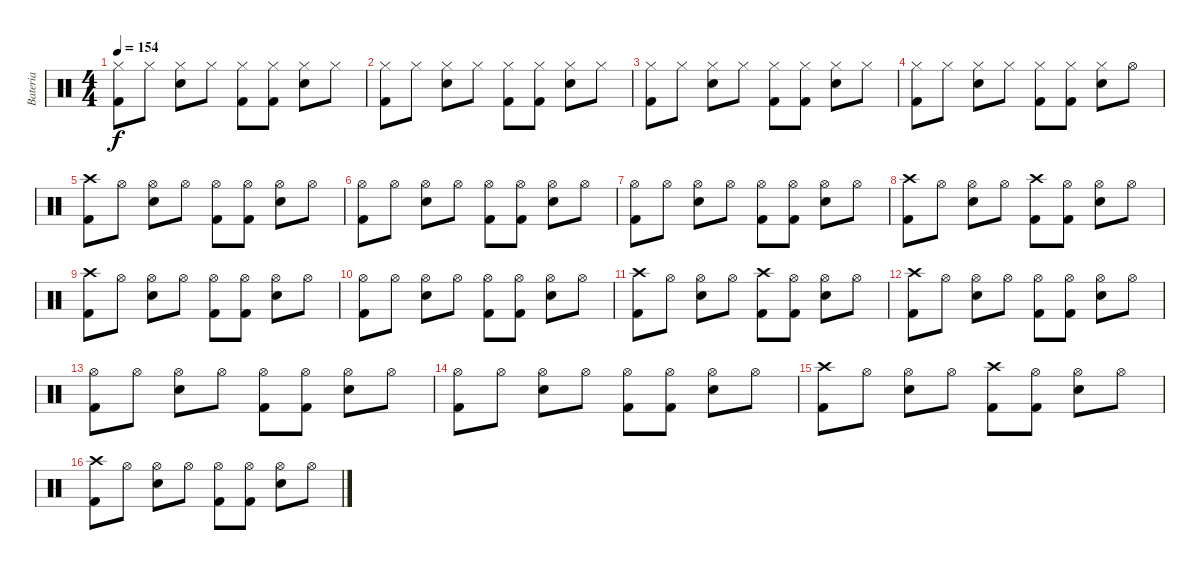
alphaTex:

\track ("Bateria" "Bateria") {instrument percussion}
\staff {score}
\articulation defaults
\ts (4 4)
\tempo 154
\clef neutral
\ks c
("Kick (hit) 2" "Hi-Hat (closed)").8{dy f} "Hi-Hat (closed)".8 ("Electric Snare (hit)" "Hi-Hat (closed)").8 "Hi-Hat (closed)".8 ("Kick (hit) 2" "Hi-Hat (closed)").8 ("Kick (hit) 2" "Hi-Hat (closed)").8 ("Electric Snare (hit)" "Hi-Hat (closed)").8 "Hi-Hat (closed)".8 |
("Kick (hit) 2" "Hi-Hat (closed)").8 "Hi-Hat (closed)".8 ("Electric Snare (hit)" "Hi-Hat (closed)").8 "Hi-Hat (closed)".8 ("Kick (hit) 2" "Hi-Hat (closed)").8 ("Kick (hit) 2" "Hi-Hat (closed)").8 ("Electric Snare (hit)" "Hi-Hat (closed)").8 "Hi-Hat (closed)".8 |
("Kick (hit) 2" "Hi-Hat (closed)").8 "Hi-Hat (closed)".8 ("Electric Snare (hit)" "Hi-Hat (closed)").8 "Hi-Hat (closed)".8 ("Kick (hit) 2" "Hi-Hat (closed)").8 ("Kick (hit) 2" "Hi-Hat (closed)").8 ("Electric Snare (hit)" "Hi-Hat (closed)").8 "Hi-Hat (closed)".8 |
("Kick (hit) 2" "Hi-Hat (closed)").8 "Hi-Hat (closed)".8 ("Electric Snare (hit)" "Hi-Hat (closed)").8 "Hi-Hat (closed)".8 ("Kick (hit) 2" "Hi-Hat (closed)").8 ("Kick (hit) 2" "Hi-Hat (closed)").8 ("Electric Snare (hit)" "Hi-Hat (closed)").8 "Hi-Hat (open)".8 |
("Kick (hit) 2" "Crash high (hit)").8 "Hi-Hat (open)".8 ("Electric Snare (hit)" "Hi-Hat (open)").8 "Hi-Hat (open)".8 ("Kick (hit) 2" "Hi-Hat (open)").8 ("Kick (hit) 2" "Hi-Hat (open)").8 ("Electric Snare (hit)" "Hi-Hat (open)").8 "Hi-Hat (open)".8 |
("Kick (hit) 2" "Hi-Hat (open)").8 "Hi-Hat (open)".8 ("Electric Snare (hit)" "Hi-Hat (open)").8 "Hi-Hat (open)".8 ("Kick (hit) 2" "Hi-Hat (open)").8 ("Kick (hit) 2" "Hi-Hat (open)").8 ("Electric Snare (hit)" "Hi-Hat (open)").8 "Hi-Hat (open)".8 |
("Kick (hit) 2" "Hi-Hat (open)").8 "Hi-Hat (open)".8 ("Electric Snare (hit)" "Hi-Hat (open)").8 "Hi-Hat (open)".8 ("Kick (hit) 2" "Hi-Hat (open)").8 ("Kick (hit) 2" "Hi-Hat (open)").8 ("Electric Snare (hit)" "Hi-Hat (open)").8 "Hi-Hat (open)".8 |
("Kick (hit) 2" "Crash high (hit)").8 "Hi-Hat (open)".8 ("Electric Snare (hit)" "Hi-Hat (open)").8 "Hi-Hat (open)".8 ("Kick (hit) 2" "Crash high (hit)").8 ("Kick (hit) 2" "Hi-Hat (open)").8 ("Electric Snare (hit)" "Hi-Hat (open)").8 "Hi-Hat (open)".8 |
("Kick (hit) 2" "Crash high (hit)").8 "Hi-Hat (open)".8 ("Electric Snare (hit)" "Hi-Hat (open)").8 "Hi-Hat (open)".8 ("Kick (hit) 2" "Hi-Hat (open)").8 ("Kick (hit) 2" "Hi-Hat (open)").8 ("Electric Snare (hit)" "Hi-Hat (open)").8 "Hi-Hat (open)".8 |
("Kick (hit) 2" "Hi-Hat (open)").8 "Hi-Hat (open)".8 ("Electric Snare (hit)" "Hi-Hat (open)").8 "Hi-Hat (open)".8 ("Kick (hit) 2" "Hi-Hat (open)").8 ("Kick (hit) 2" "Hi-Hat (open)").8 ("Electric Snare (hit)" "Hi-Hat (open)").8 "Hi-Hat (open)".8 |
("Kick (hit) 2" "Crash high (hit)").8 "Hi-Hat (open)".8 ("Electric Snare (hit)" "Hi-Hat (open)").8 "Hi-Hat (open)".8 ("Kick (hit) 2" "Crash high (hit)").8 ("Kick (hit) 2" "Hi-Hat (open)").8 ("Electric Snare (hit)" "Hi-Hat (open)").8 "Hi-Hat (open)".8 |
("Kick (hit) 2" "Crash high (hit)").8 "Hi-Hat (open)".8 ("Electric Snare (hit)" "Hi-Hat (open)").8 "Hi-Hat (open)".8 ("Kick (hit) 2" "Hi-Hat (open)").8 ("Kick (hit) 2" "Hi-Hat (open)").8 ("Electric Snare (hit)" "Hi-Hat (open)").8 "Hi-Hat (open)".8 |
("Kick (hit) 2" "Hi-Hat (open)").8 "Hi-Hat (open)".8 ("Electric Snare (hit)" "Hi-Hat (open)").8 "Hi-Hat (open)".8 ("Kick (hit) 2" "Hi-Hat (open)").8 ("Kick (hit) 2" "Hi-Hat (open)").8 ("Electric Snare (hit)" "Hi-Hat (open)").8 "Hi-Hat (open)".8 |
("Kick (hit) 2" "Hi-Hat (open)").8 "Hi-Hat (open)".8 ("Electric Snare (hit)" "Hi-Hat (open)").8 "Hi-Hat (open)".8 ("Kick (hit) 2" "Hi-Hat (open)").8 ("Kick (hit) 2" "Hi-Hat (open)").8 ("Electric Snare (hit)" "Hi-Hat (open)").8 "Hi-Hat (open)".8 |
("Kick (hit) 2" "Crash high (hit)").8 "Hi-Hat (open)".8 ("Electric Snare (hit)" "Hi-Hat (open)").8 "Hi-Hat (open)".8 ("Kick (hit) 2" "Crash high (hit)").8 ("Kick (hit) 2" "Hi-Hat (open)").8 ("Electric Snare (hit)" "Hi-Hat (open)").8 "Hi-Hat (open)".8 |
("Kick (hit) 2" "Crash high (hit)").8 "Hi-Hat (open)".8 ("Electric Snare (hit)" "Hi-Hat (open)").8 "Hi-Hat (open)".8 ("Kick (hit) 2" "Hi-Hat (open)").8 ("Kick (hit) 2" "Hi-Hat (open)").8 ("Electric Snare (hit)" "Hi-Hat (open)").8 "Hi-Hat (open)".8
